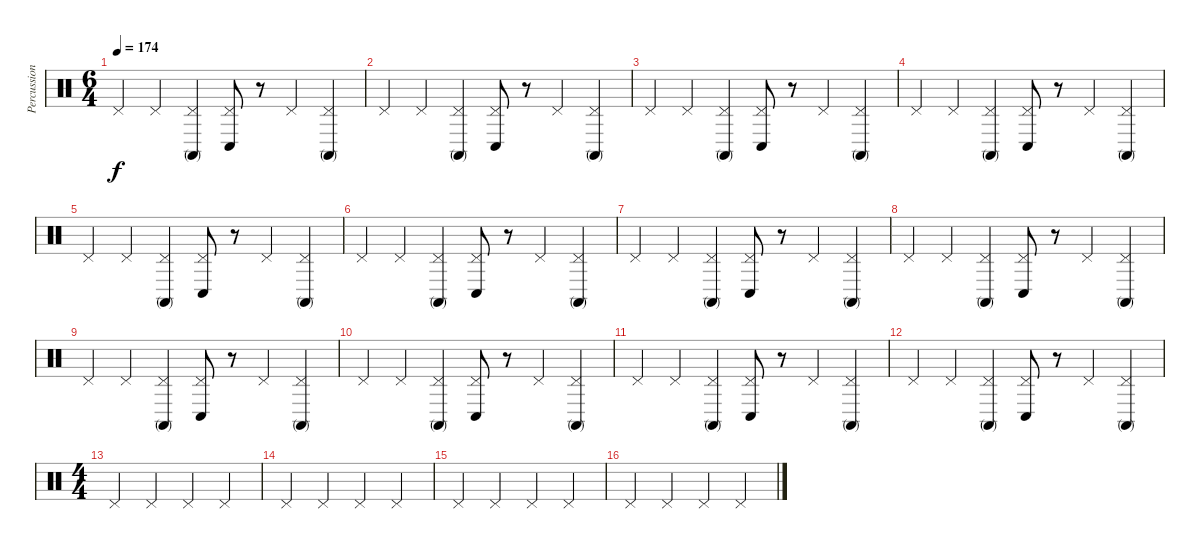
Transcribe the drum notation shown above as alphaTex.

\track ("Percussion" "Percussion") {instrument percussion}
\staff {score}
\articulation defaults
\ts (6 4)
\tempo 174
\clef neutral
\ks c "Pedal Hi-Hat (hit)".4{dy f} "Pedal Hi-Hat (hit)".4
("Pedal Hi-Hat (hit)" "Conga high (mute)").4 ("Pedal Hi-Hat (hit)" "Conga low (hit)").8 r.8 "Pedal Hi-Hat (hit)".4 ("Pedal Hi-Hat (hit)" "Conga high (mute)").4 |
"Pedal Hi-Hat (hit)".4 "Pedal Hi-Hat (hit)".4 ("Pedal Hi-Hat (hit)" "Conga high (mute)").4 ("Pedal Hi-Hat (hit)" "Conga low (hit)").8 r.8 "Pedal Hi-Hat (hit)".4 ("Pedal Hi-Hat (hit)" "Conga high (mute)").4 |
"Pedal Hi-Hat (hit)".4 "Pedal Hi-Hat (hit)".4 ("Pedal Hi-Hat (hit)" "Conga high (mute)").4 ("Pedal Hi-Hat (hit)" "Conga low (hit)").8 r.8 "Pedal Hi-Hat (hit)".4 ("Pedal Hi-Hat (hit)" "Conga high (mute)").4 |
"Pedal Hi-Hat (hit)".4 "Pedal Hi-Hat (hit)".4 ("Pedal Hi-Hat (hit)" "Conga high (mute)").4 ("Pedal Hi-Hat (hit)" "Conga low (hit)").8 r.8 "Pedal Hi-Hat (hit)".4 ("Pedal Hi-Hat (hit)" "Conga high (mute)").4 |
"Pedal Hi-Hat (hit)".4 "Pedal Hi-Hat (hit)".4 ("Pedal Hi-Hat (hit)" "Conga high (mute)").4 ("Pedal Hi-Hat (hit)" "Conga low (hit)").8 r.8 "Pedal Hi-Hat (hit)".4 ("Pedal Hi-Hat (hit)" "Conga high (mute)").4 |
"Pedal Hi-Hat (hit)".4 "Pedal Hi-Hat (hit)".4 ("Pedal Hi-Hat (hit)" "Conga high (mute)").4 ("Pedal Hi-Hat (hit)" "Conga low (hit)").8 r.8 "Pedal Hi-Hat (hit)".4 ("Pedal Hi-Hat (hit)" "Conga high (mute)").4 |
"Pedal Hi-Hat (hit)".4 "Pedal Hi-Hat (hit)".4 ("Pedal Hi-Hat (hit)" "Conga high (mute)").4 ("Pedal Hi-Hat (hit)" "Conga low (hit)").8 r.8 "Pedal Hi-Hat (hit)".4 ("Pedal Hi-Hat (hit)" "Conga high (mute)").4 |
"Pedal Hi-Hat (hit)".4 "Pedal Hi-Hat (hit)".4 ("Pedal Hi-Hat (hit)" "Conga high (mute)").4 ("Pedal Hi-Hat (hit)" "Conga low (hit)").8 r.8 "Pedal Hi-Hat (hit)".4 ("Pedal Hi-Hat (hit)" "Conga high (mute)").4 |
"Pedal Hi-Hat (hit)".4 "Pedal Hi-Hat (hit)".4 ("Pedal Hi-Hat (hit)" "Conga high (mute)").4 ("Pedal Hi-Hat (hit)" "Conga low (hit)").8 r.8 "Pedal Hi-Hat (hit)".4 ("Pedal Hi-Hat (hit)" "Conga high (mute)").4 |
"Pedal Hi-Hat (hit)".4 "Pedal Hi-Hat (hit)".4 ("Pedal Hi-Hat (hit)" "Conga high (mute)").4 ("Pedal Hi-Hat (hit)" "Conga low (hit)").8 r.8 "Pedal Hi-Hat (hit)".4 ("Pedal Hi-Hat (hit)" "Conga high (mute)").4 |
"Pedal Hi-Hat (hit)".4 "Pedal Hi-Hat (hit)".4 ("Pedal Hi-Hat (hit)" "Conga high (mute)").4 ("Pedal Hi-Hat (hit)" "Conga low (hit)").8 r.8 "Pedal Hi-Hat (hit)".4 ("Pedal Hi-Hat (hit)" "Conga high (mute)").4 |
"Pedal Hi-Hat (hit)".4 "Pedal Hi-Hat (hit)".4 ("Pedal Hi-Hat (hit)" "Conga high (mute)").4 ("Pedal Hi-Hat (hit)" "Conga low (hit)").8 r.8 "Pedal Hi-Hat (hit)".4 ("Pedal Hi-Hat (hit)" "Conga high (mute)").4 |
\ts (4 4)
"Pedal Hi-Hat (hit)".4 "Pedal Hi-Hat (hit)".4 "Pedal Hi-Hat (hit)".4 "Pedal Hi-Hat (hit)".4 |
"Pedal Hi-Hat (hit)".4 "Pedal Hi-Hat (hit)".4 "Pedal Hi-Hat (hit)".4 "Pedal Hi-Hat (hit)".4 |
"Pedal Hi-Hat (hit)".4 "Pedal Hi-Hat (hit)".4 "Pedal Hi-Hat (hit)".4 "Pedal Hi-Hat (hit)".4 |
"Pedal Hi-Hat (hit)".4 "Pedal Hi-Hat (hit)".4 "Pedal Hi-Hat (hit)".4 "Pedal Hi-Hat (hit)".4
